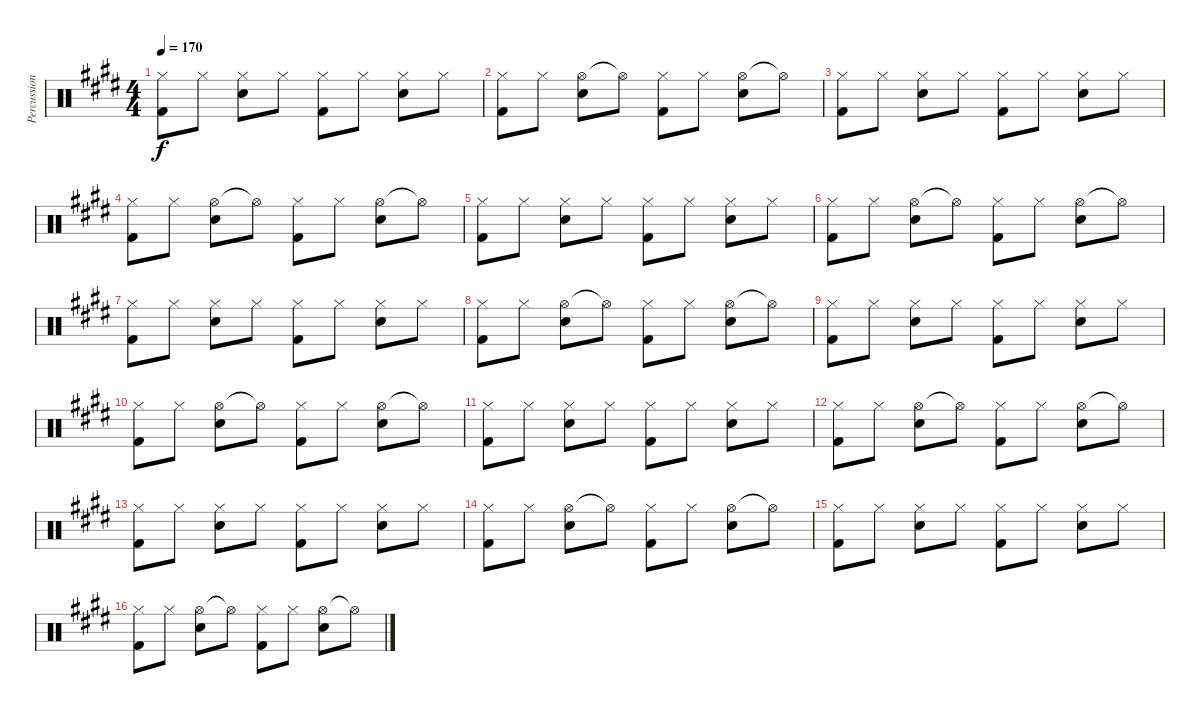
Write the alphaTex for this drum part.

\track ("Percussion" "Percussion") {instrument percussion}
\staff {score}
\articulation defaults
\ts (4 4)
\tempo 170
\clef neutral
\ks e
("Hi-Hat (closed)" "Kick (hit) 2").8{dy f} "Hi-Hat (closed)".8 ("Hi-Hat (closed)" "Snare (hit) 2").8 "Hi-Hat (closed)".8 ("Hi-Hat (closed)" "Kick (hit) 2").8 "Hi-Hat (closed)".8 ("Hi-Hat (closed)" "Snare (hit) 2").8 "Hi-Hat (closed)".8 |
("Hi-Hat (closed)" "Kick (hit) 2").8 "Hi-Hat (closed)".8 ("Hi-Hat (open)" "Snare (hit) 2").8 "Hi-Hat (open)"{t}.8 ("Hi-Hat (closed)" "Kick (hit) 2").8 "Hi-Hat (closed)".8 ("Hi-Hat (open)" "Snare (hit) 2").8 "Hi-Hat (open)"{t}.8 |
("Hi-Hat (closed)" "Kick (hit) 2").8 "Hi-Hat (closed)".8 ("Hi-Hat (closed)" "Snare (hit) 2").8 "Hi-Hat (closed)".8 ("Hi-Hat (closed)" "Kick (hit) 2").8 "Hi-Hat (closed)".8 ("Hi-Hat (closed)" "Snare (hit) 2").8 "Hi-Hat (closed)".8 |
("Hi-Hat (closed)" "Kick (hit) 2").8 "Hi-Hat (closed)".8 ("Hi-Hat (open)" "Snare (hit) 2").8 "Hi-Hat (open)"{t}.8 ("Hi-Hat (closed)" "Kick (hit) 2").8 "Hi-Hat (closed)".8 ("Hi-Hat (open)" "Snare (hit) 2").8 "Hi-Hat (open)"{t}.8 |
("Hi-Hat (closed)" "Kick (hit) 2").8 "Hi-Hat (closed)".8 ("Hi-Hat (closed)" "Snare (hit) 2").8 "Hi-Hat (closed)".8 ("Hi-Hat (closed)" "Kick (hit) 2").8 "Hi-Hat (closed)".8 ("Hi-Hat (closed)" "Snare (hit) 2").8 "Hi-Hat (closed)".8 |
("Hi-Hat (closed)" "Kick (hit) 2").8 "Hi-Hat (closed)".8 ("Hi-Hat (open)" "Snare (hit) 2").8 "Hi-Hat (open)"{t}.8 ("Hi-Hat (closed)" "Kick (hit) 2").8 "Hi-Hat (closed)".8 ("Hi-Hat (open)" "Snare (hit) 2").8 "Hi-Hat (open)"{t}.8 |
("Hi-Hat (closed)" "Kick (hit) 2").8 "Hi-Hat (closed)".8 ("Hi-Hat (closed)" "Snare (hit) 2").8 "Hi-Hat (closed)".8 ("Hi-Hat (closed)" "Kick (hit) 2").8 "Hi-Hat (closed)".8 ("Hi-Hat (closed)" "Snare (hit) 2").8 "Hi-Hat (closed)".8 |
("Hi-Hat (closed)" "Kick (hit) 2").8 "Hi-Hat (closed)".8 ("Hi-Hat (open)" "Snare (hit) 2").8 "Hi-Hat (open)"{t}.8 ("Hi-Hat (closed)" "Kick (hit) 2").8 "Hi-Hat (closed)".8 ("Hi-Hat (open)" "Snare (hit) 2").8 "Hi-Hat (open)"{t}.8 |
("Hi-Hat (closed)" "Kick (hit) 2").8 "Hi-Hat (closed)".8 ("Hi-Hat (closed)" "Snare (hit) 2").8 "Hi-Hat (closed)".8 ("Hi-Hat (closed)" "Kick (hit) 2").8 "Hi-Hat (closed)".8 ("Hi-Hat (closed)" "Snare (hit) 2").8 "Hi-Hat (closed)".8 |
("Hi-Hat (closed)" "Kick (hit) 2").8 "Hi-Hat (closed)".8 ("Hi-Hat (open)" "Snare (hit) 2").8 "Hi-Hat (open)"{t}.8 ("Hi-Hat (closed)" "Kick (hit) 2").8 "Hi-Hat (closed)".8 ("Hi-Hat (open)" "Snare (hit) 2").8 "Hi-Hat (open)"{t}.8 |
("Hi-Hat (closed)" "Kick (hit) 2").8 "Hi-Hat (closed)".8 ("Hi-Hat (closed)" "Snare (hit) 2").8 "Hi-Hat (closed)".8 ("Hi-Hat (closed)" "Kick (hit) 2").8 "Hi-Hat (closed)".8 ("Hi-Hat (closed)" "Snare (hit) 2").8 "Hi-Hat (closed)".8 |
("Hi-Hat (closed)" "Kick (hit) 2").8 "Hi-Hat (closed)".8 ("Hi-Hat (open)" "Snare (hit) 2").8 "Hi-Hat (open)"{t}.8 ("Hi-Hat (closed)" "Kick (hit) 2").8 "Hi-Hat (closed)".8 ("Hi-Hat (open)" "Snare (hit) 2").8 "Hi-Hat (open)"{t}.8 |
("Hi-Hat (closed)" "Kick (hit) 2").8 "Hi-Hat (closed)".8 ("Hi-Hat (closed)" "Snare (hit) 2").8 "Hi-Hat (closed)".8 ("Hi-Hat (closed)" "Kick (hit) 2").8 "Hi-Hat (closed)".8 ("Hi-Hat (closed)" "Snare (hit) 2").8 "Hi-Hat (closed)".8 |
("Hi-Hat (closed)" "Kick (hit) 2").8 "Hi-Hat (closed)".8 ("Hi-Hat (open)" "Snare (hit) 2").8 "Hi-Hat (open)"{t}.8 ("Hi-Hat (closed)" "Kick (hit) 2").8 "Hi-Hat (closed)".8 ("Hi-Hat (open)" "Snare (hit) 2").8 "Hi-Hat (open)"{t}.8 |
("Hi-Hat (closed)" "Kick (hit) 2").8 "Hi-Hat (closed)".8 ("Hi-Hat (closed)" "Snare (hit) 2").8 "Hi-Hat (closed)".8 ("Hi-Hat (closed)" "Kick (hit) 2").8 "Hi-Hat (closed)".8 ("Hi-Hat (closed)" "Snare (hit) 2").8 "Hi-Hat (closed)".8 |
("Hi-Hat (closed)" "Kick (hit) 2").8 "Hi-Hat (closed)".8 ("Hi-Hat (open)" "Snare (hit) 2").8 "Hi-Hat (open)"{t}.8 ("Hi-Hat (closed)" "Kick (hit) 2").8 "Hi-Hat (closed)".8 ("Hi-Hat (open)" "Snare (hit) 2").8 "Hi-Hat (open)"{t}.8
